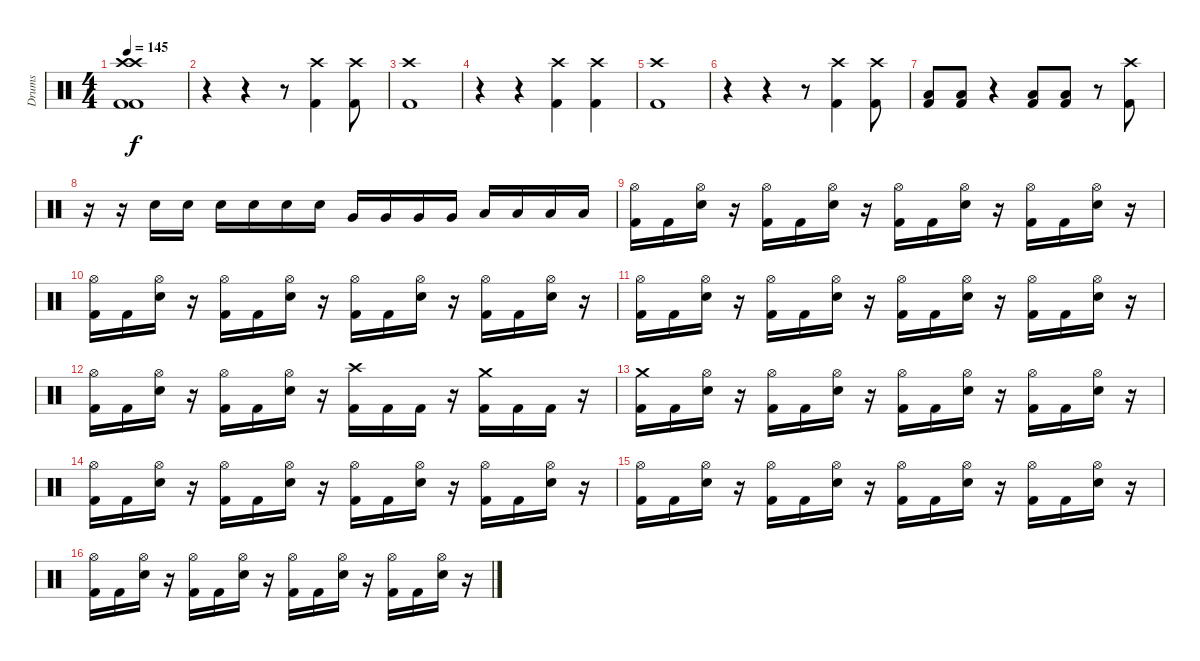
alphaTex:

\track ("Drums" "Drums") {instrument percussion}
\staff {score}
\articulation defaults
\ts (4 4)
\tempo 145
\clef neutral
\ks c
("Kick (hit) 2" "Kick (hit) 2" "Crash high (hit)" "Crash high (hit)").1{dy f} |
r.4 r.4 r.8 ("Kick (hit) 2" "Crash high (hit)").4 ("Kick (hit) 2" "Crash high (hit)").8 |
("Kick (hit) 2" "Crash high (hit)").1 |
r.4 r.4 ("Kick (hit) 2" "Crash high (hit)").4 ("Kick (hit) 2" "Crash high (hit)").4 |
("Kick (hit) 2" "Crash high (hit)").1 |
r.4 r.4 r.8 ("Kick (hit) 2" "Crash high (hit)").4 ("Kick (hit) 2" "Crash high (hit)").8 |
("Kick (hit) 2" "Low Floor Tom (hit)").8 ("Kick (hit) 2" "Low Floor Tom (hit)").8 r.4 ("Kick (hit) 2" "Low Floor Tom (hit)").8 ("Kick (hit) 2" "Low Floor Tom (hit)").8 r.8 ("Kick (hit) 2" "Crash high (hit)").8 |
r.16 r.16 "Electric Snare (hit)".16 "Electric Snare (hit)".16 "Electric Snare (hit)".16 "Electric Snare (hit)".16 "Electric Snare (hit)".16 "Electric Snare (hit)".16 "Very Low Tom (hit)".16 "Very Low Tom (hit)".16 "Very Low Tom (hit)".16 "Very Low Tom (hit)".16 "Low Floor Tom (hit)".16 "Low Floor Tom (hit)".16 "Low Floor Tom (hit)".16 "Low Floor Tom (hit)".16 |
("Hi-Hat (open)" "Kick (hit) 2").16 "Kick (hit) 2".16 ("Hi-Hat (open)" "Electric Snare (hit)").16 r.16 ("Hi-Hat (open)" "Kick (hit) 2").16 "Kick (hit) 2".16 ("Hi-Hat (open)" "Electric Snare (hit)").16 r.16 ("Hi-Hat (open)" "Kick (hit) 2").16 "Kick (hit) 2".16 ("Hi-Hat (open)" "Electric Snare (hit)").16 r.16 ("Hi-Hat (open)" "Kick (hit) 2").16 "Kick (hit) 2".16 ("Hi-Hat (open)" "Electric Snare (hit)").16 r.16 |
("Hi-Hat (open)" "Kick (hit) 2").16 "Kick (hit) 2".16 ("Hi-Hat (open)" "Electric Snare (hit)").16 r.16 ("Hi-Hat (open)" "Kick (hit) 2").16 "Kick (hit) 2".16 ("Hi-Hat (open)" "Electric Snare (hit)").16 r.16 ("Hi-Hat (open)" "Kick (hit) 2").16 "Kick (hit) 2".16 ("Hi-Hat (open)" "Electric Snare (hit)").16 r.16 ("Hi-Hat (open)" "Kick (hit) 2").16 "Kick (hit) 2".16 ("Hi-Hat (open)" "Electric Snare (hit)").16 r.16 |
("Hi-Hat (open)" "Kick (hit) 2").16 "Kick (hit) 2".16 ("Hi-Hat (open)" "Electric Snare (hit)").16 r.16 ("Hi-Hat (open)" "Kick (hit) 2").16 "Kick (hit) 2".16 ("Hi-Hat (open)" "Electric Snare (hit)").16 r.16 ("Hi-Hat (open)" "Kick (hit) 2").16 "Kick (hit) 2".16 ("Hi-Hat (open)" "Electric Snare (hit)").16 r.16 ("Hi-Hat (open)" "Kick (hit) 2").16 "Kick (hit) 2".16 ("Hi-Hat (open)" "Electric Snare (hit)").16 r.16 |
("Hi-Hat (open)" "Kick (hit) 2").16 "Kick (hit) 2".16 ("Hi-Hat (open)" "Electric Snare (hit)").16 r.16 ("Hi-Hat (open)" "Kick (hit) 2").16 "Kick (hit) 2".16 ("Hi-Hat (open)" "Electric Snare (hit)").16 r.16 ("Crash high (hit)" "Kick (hit) 2").16 "Kick (hit) 2".16 "Kick (hit) 2".16 r.16 ("Crash medium (hit)" "Kick (hit) 2").16 "Kick (hit) 2".16 "Kick (hit) 2".16 r.16 |
("Crash medium (hit)" "Kick (hit) 2").16 "Kick (hit) 2".16 ("Hi-Hat (open)" "Electric Snare (hit)").16 r.16 ("Hi-Hat (open)" "Kick (hit) 2").16 "Kick (hit) 2".16 ("Hi-Hat (open)" "Electric Snare (hit)").16 r.16 ("Hi-Hat (open)" "Kick (hit) 2").16 "Kick (hit) 2".16 ("Hi-Hat (open)" "Electric Snare (hit)").16 r.16 ("Hi-Hat (open)" "Kick (hit) 2").16 "Kick (hit) 2".16 ("Hi-Hat (open)" "Electric Snare (hit)").16 r.16 |
("Hi-Hat (open)" "Kick (hit) 2").16 "Kick (hit) 2".16 ("Hi-Hat (open)" "Electric Snare (hit)").16 r.16 ("Hi-Hat (open)" "Kick (hit) 2").16 "Kick (hit) 2".16 ("Hi-Hat (open)" "Electric Snare (hit)").16 r.16 ("Hi-Hat (open)" "Kick (hit) 2").16 "Kick (hit) 2".16 ("Hi-Hat (open)" "Electric Snare (hit)").16 r.16 ("Hi-Hat (open)" "Kick (hit) 2").16 "Kick (hit) 2".16 ("Hi-Hat (open)" "Electric Snare (hit)").16 r.16 |
("Hi-Hat (open)" "Kick (hit) 2").16 "Kick (hit) 2".16 ("Hi-Hat (open)" "Electric Snare (hit)").16 r.16 ("Hi-Hat (open)" "Kick (hit) 2").16 "Kick (hit) 2".16 ("Hi-Hat (open)" "Electric Snare (hit)").16 r.16 ("Hi-Hat (open)" "Kick (hit) 2").16 "Kick (hit) 2".16 ("Hi-Hat (open)" "Electric Snare (hit)").16 r.16 ("Hi-Hat (open)" "Kick (hit) 2").16 "Kick (hit) 2".16 ("Hi-Hat (open)" "Electric Snare (hit)").16 r.16 |
("Hi-Hat (open)" "Kick (hit) 2").16 "Kick (hit) 2".16 ("Hi-Hat (open)" "Electric Snare (hit)").16 r.16 ("Hi-Hat (open)" "Kick (hit) 2").16 "Kick (hit) 2".16 ("Hi-Hat (open)" "Electric Snare (hit)").16 r.16 ("Hi-Hat (open)" "Kick (hit) 2").16 "Kick (hit) 2".16 ("Hi-Hat (open)" "Electric Snare (hit)").16 r.16 ("Hi-Hat (open)" "Kick (hit) 2").16 "Kick (hit) 2".16 ("Hi-Hat (open)" "Electric Snare (hit)").16 r.16
